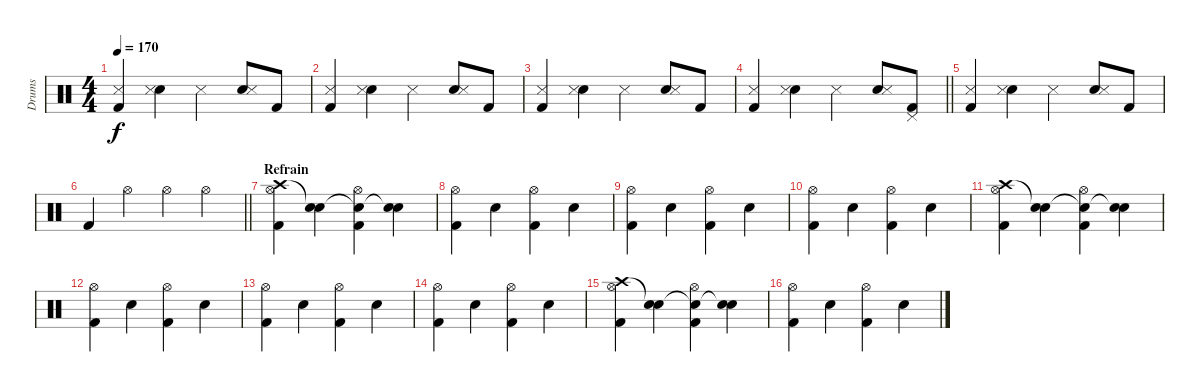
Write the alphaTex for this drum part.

\track ("Drums" "Drums") {instrument percussion}
\staff {score}
\articulation defaults
\ts (4 4)
\tempo 170
\clef neutral
\ks c
("Snare (side stick) 3" "Kick (hit) 2").4{dy f} ("Snare (hit) 2" "Snare (side stick) 3").4 "Snare (side stick) 3".4 ("Snare (hit) 2" "Snare (side stick) 3").8 "Kick (hit) 2".8 |
("Snare (side stick) 3" "Kick (hit) 2").4 ("Snare (hit) 2" "Snare (side stick) 3").4 "Snare (side stick) 3".4 ("Snare (hit) 2" "Snare (side stick) 3").8 "Kick (hit) 2".8 |
("Snare (side stick) 3" "Kick (hit) 2").4 ("Snare (hit) 2" "Snare (side stick) 3").4 "Snare (side stick) 3".4 ("Snare (hit) 2" "Snare (side stick) 3").8 "Kick (hit) 2".8 |
\barLineRight lightlight
("Snare (side stick) 3" "Kick (hit) 2").4 ("Snare (hit) 2" "Snare (side stick) 3").4 "Snare (side stick) 3".4 ("Snare (hit) 2" "Snare (side stick) 3").8 ("Pedal Hi-Hat (hit)" "Kick (hit) 2").8 |
("Snare (side stick) 3" "Kick (hit) 2").4 ("Snare (hit) 2" "Snare (side stick) 3").4 "Snare (side stick) 3".4 ("Snare (hit) 2" "Snare (side stick) 3").8 "Kick (hit) 2".8 |
\barLineRight lightlight "Kick (hit) 2".4 "Hi-Hat (open)".4 "Hi-Hat (open)".4 "Hi-Hat (open)".4
|
\section ("" "Refrain")
("Crash high (hit)" "Hi-Hat (open)" "Kick (hit) 2").4 ("Snare (hit)"{t} "Snare (hit) 2").4 ("Snare (hit)"{t} "Hi-Hat (open)" "Kick (hit) 2").4 ("Snare (hit)"{t} "Snare (hit) 2").4 |
("Hi-Hat (open)" "Kick (hit) 2").4 "Snare (hit) 2".4 ("Hi-Hat (open)" "Kick (hit) 2").4 "Snare (hit) 2".4 |
("Hi-Hat (open)" "Kick (hit) 2").4 "Snare (hit) 2".4 ("Hi-Hat (open)" "Kick (hit) 2").4 "Snare (hit) 2".4 |
("Hi-Hat (open)" "Kick (hit) 2").4 "Snare (hit) 2".4 ("Hi-Hat (open)" "Kick (hit) 2").4 "Snare (hit) 2".4 |
("Crash high (hit)" "Hi-Hat (open)" "Kick (hit) 2").4 ("Snare (hit)"{t} "Snare (hit) 2").4 ("Snare (hit)"{t} "Hi-Hat (open)" "Kick (hit) 2").4 ("Snare (hit)"{t} "Snare (hit) 2").4 |
("Hi-Hat (open)" "Kick (hit) 2").4 "Snare (hit) 2".4 ("Hi-Hat (open)" "Kick (hit) 2").4 "Snare (hit) 2".4 |
("Hi-Hat (open)" "Kick (hit) 2").4 "Snare (hit) 2".4 ("Hi-Hat (open)" "Kick (hit) 2").4 "Snare (hit) 2".4 |
("Hi-Hat (open)" "Kick (hit) 2").4 "Snare (hit) 2".4 ("Hi-Hat (open)" "Kick (hit) 2").4 "Snare (hit) 2".4 |
("Crash high (hit)" "Hi-Hat (open)" "Kick (hit) 2").4 ("Snare (hit)"{t} "Snare (hit) 2").4 ("Snare (hit)"{t} "Hi-Hat (open)" "Kick (hit) 2").4 ("Snare (hit)"{t} "Snare (hit) 2").4 |
("Hi-Hat (open)" "Kick (hit) 2").4 "Snare (hit) 2".4 ("Hi-Hat (open)" "Kick (hit) 2").4 "Snare (hit) 2".4
